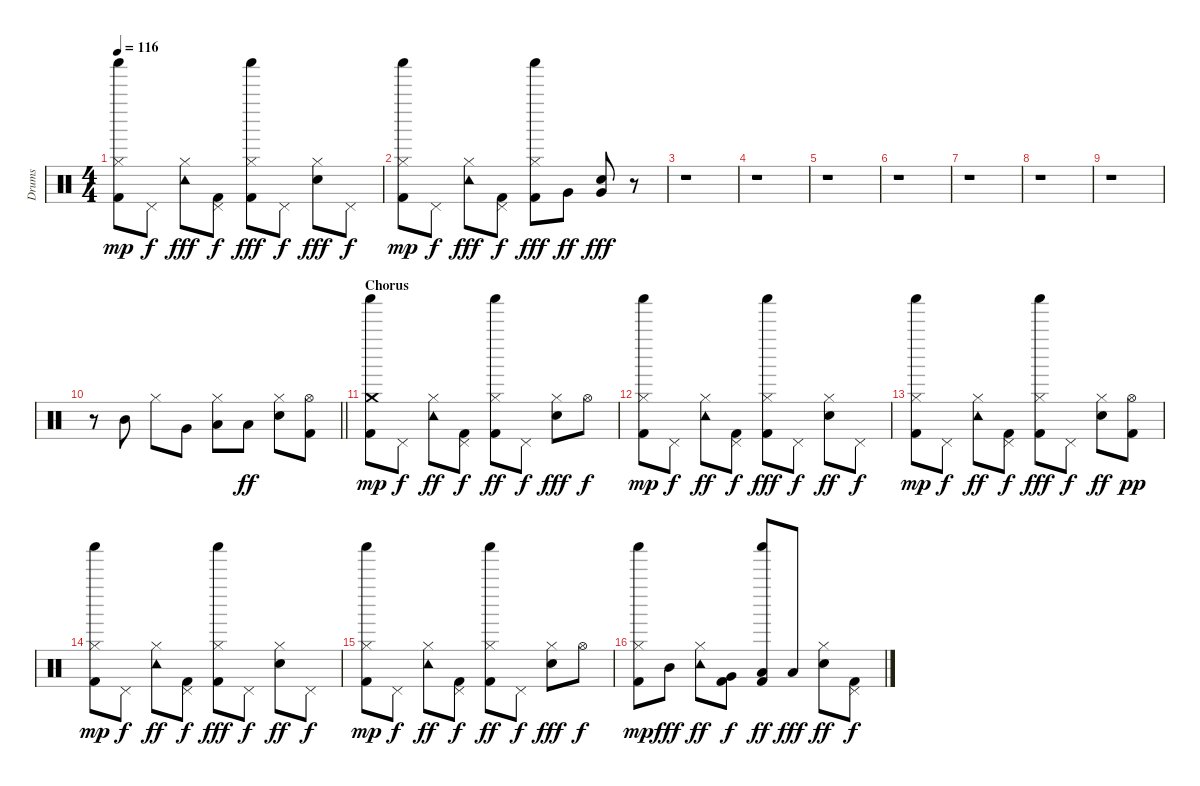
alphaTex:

\track ("Drums" "Drums") {instrument percussion}
\staff {score}
\articulation defaults
\ts (4 4)
\tempo 116
\clef neutral
\ks c
("Kick (hit) 2" "Hi-Hat (closed)" "Shaker (hit)").8{dy mp} "Pedal Hi-Hat (hit)".8{dy f} ("Hi-Hat (closed)" "Tambourine (hit)").8{dy fff} ("Pedal Hi-Hat (hit)" "Kick (hit) 2").8{dy f} ("Kick (hit) 2" "Shaker (hit)" "Hi-Hat (closed)").8{dy fff} "Pedal Hi-Hat (hit)".8{dy f} ("Hi-Hat (closed)" "Snare (hit) 2").8{dy fff} "Pedal Hi-Hat (hit)".8{dy f} |
("Kick (hit) 2" "Hi-Hat (closed)" "Shaker (hit)").8{dy mp} "Pedal Hi-Hat (hit)".8{dy f} ("Hi-Hat (closed)" "Tambourine (hit)").8{dy fff} ("Pedal Hi-Hat (hit)" "Kick (hit) 2").8{dy f} ("Kick (hit) 2" "Shaker (hit)" "Hi-Hat (closed)").8{dy fff} "Very Low Tom (hit)".8{dy ff} ("Snare (hit) 2" "Very Low Tom (hit)").8{dy fff} r.8 |
r.1 |
r.1 |
r.1 |
r.1 |
r.1 |
r.1 |
r.1 |
\barLineRight lightlight
r.8 "Mid Tom (hit)".8 "Hi-Hat (closed)".8 "Very Low Tom (hit)".8 ("Low Floor Tom (hit)" "Hi-Hat (closed)").8 "Low Floor Tom (hit)".8{dy ff} ("Hi-Hat (closed)" "Snare (hit) 2").8 ("Kick (hit) 2" "Hi-Hat (open)").8 |
\section ("" "Chorus")
("Kick (hit) 2" "Crash medium (hit)" "Shaker (hit)").8{dy mp} "Pedal Hi-Hat (hit)".8{dy f} ("Hi-Hat (closed)" "Tambourine (hit)").8{dy ff} ("Pedal Hi-Hat (hit)" "Kick (hit) 2").8{dy f} ("Kick (hit) 2" "Shaker (hit)" "Hi-Hat (closed)").8{dy ff} "Pedal Hi-Hat (hit)".8{dy f} ("Snare (hit) 2" "Hi-Hat (closed)").8{dy fff} "Hi-Hat (open)".8{dy f} |
("Kick (hit) 2" "Hi-Hat (closed)" "Shaker (hit)").8{dy mp} "Pedal Hi-Hat (hit)".8{dy f} ("Hi-Hat (closed)" "Tambourine (hit)").8{dy ff} ("Pedal Hi-Hat (hit)" "Kick (hit) 2").8{dy f} ("Kick (hit) 2" "Shaker (hit)" "Hi-Hat (closed)").8{dy fff} "Pedal Hi-Hat (hit)".8{dy f} ("Hi-Hat (closed)" "Snare (hit) 2").8{dy ff} "Pedal Hi-Hat (hit)".8{dy f} |
("Kick (hit) 2" "Hi-Hat (closed)" "Shaker (hit)").8{dy mp} "Pedal Hi-Hat (hit)".8{dy f} ("Hi-Hat (closed)" "Tambourine (hit)").8{dy ff} ("Pedal Hi-Hat (hit)" "Kick (hit) 2").8{dy f} ("Kick (hit) 2" "Shaker (hit)" "Hi-Hat (closed)").8{dy fff} "Pedal Hi-Hat (hit)".8{dy f} ("Hi-Hat (closed)" "Snare (hit) 2").8{dy ff} ("Kick (hit) 2" "Hi-Hat (open)").8{dy pp} |
("Kick (hit) 2" "Hi-Hat (closed)" "Shaker (hit)").8{dy mp} "Pedal Hi-Hat (hit)".8{dy f} ("Hi-Hat (closed)" "Tambourine (hit)").8{dy ff} ("Pedal Hi-Hat (hit)" "Kick (hit) 2").8{dy f} ("Kick (hit) 2" "Shaker (hit)" "Hi-Hat (closed)").8{dy fff} "Pedal Hi-Hat (hit)".8{dy f} ("Snare (hit) 2" "Hi-Hat (closed)").8{dy ff} "Pedal Hi-Hat (hit)".8{dy f} |
("Kick (hit) 2" "Hi-Hat (closed)" "Shaker (hit)").8{dy mp} "Pedal Hi-Hat (hit)".8{dy f} ("Hi-Hat (closed)" "Tambourine (hit)").8{dy ff} ("Pedal Hi-Hat (hit)" "Kick (hit) 2").8{dy f} ("Kick (hit) 2" "Shaker (hit)" "Hi-Hat (closed)").8{dy ff} "Pedal Hi-Hat (hit)".8{dy f} ("Snare (hit) 2" "Hi-Hat (closed)").8{dy fff} "Hi-Hat (open)".8{dy f} |
("Kick (hit) 2" "Hi-Hat (closed)" "Shaker (hit)").8{dy mp} "Mid Tom (hit)".8{dy fff} ("Hi-Hat (closed)" "Tambourine (hit)").8{dy ff} ("Very Low Tom (hit)" "Kick (hit) 2").8{dy f} ("Kick (hit) 2" "Shaker (hit)" "Low Floor Tom (hit)").8{dy ff} "Low Floor Tom (hit)".8{dy fff} ("Hi-Hat (closed)" "Snare (hit) 2").8{dy ff} ("Kick (hit) 2" "Pedal Hi-Hat (hit)").8{dy f}
